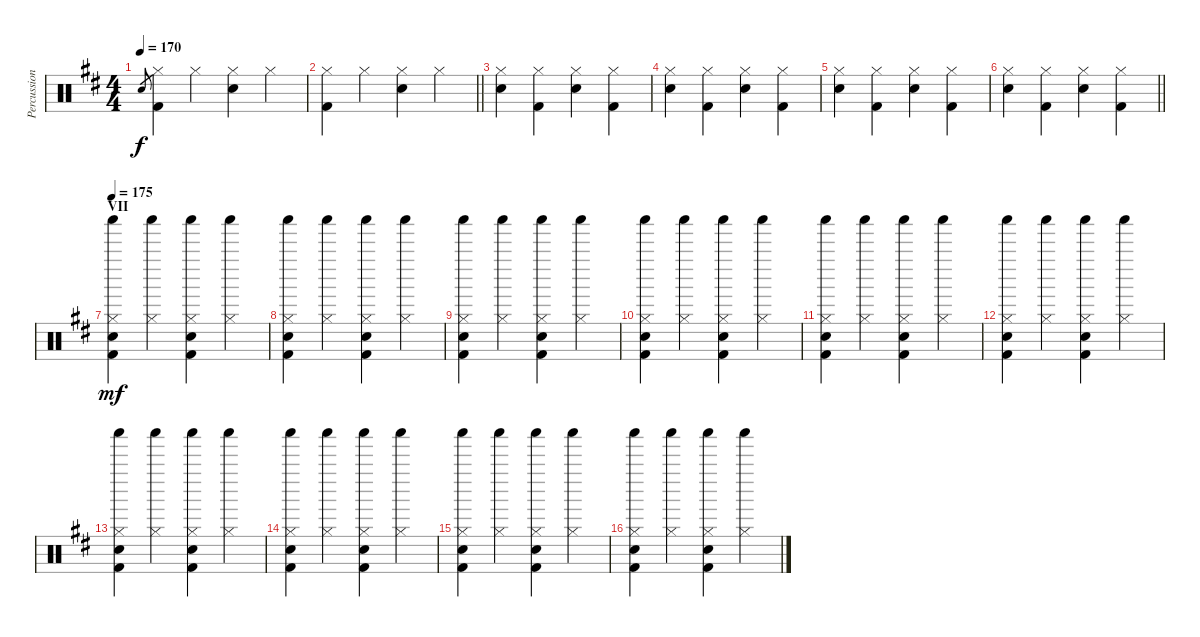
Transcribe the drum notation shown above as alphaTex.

\track ("Percussion [Nick Mason]" "Percussion") {instrument percussion}
\staff {score}
\articulation defaults
\ts (4 4)
\tempo 170
\clef neutral
\ks d "Snare (hit) 2".8{gr dy f}
("Hi-Hat (closed)" "Kick (hit) 2").4 "Hi-Hat (closed)".4 ("Hi-Hat (closed)" "Snare (hit) 2").4 "Hi-Hat (closed)".4 |
\barLineRight lightlight
("Hi-Hat (closed)" "Kick (hit) 2").4 "Hi-Hat (closed)".4 ("Hi-Hat (closed)" "Snare (hit) 2").4 "Hi-Hat (closed)".4 |
("Hi-Hat (closed)" "Snare (hit) 2").4 ("Hi-Hat (closed)" "Kick (hit) 2").4 ("Hi-Hat (closed)" "Snare (hit) 2").4 ("Hi-Hat (closed)" "Kick (hit) 2").4 |
("Hi-Hat (closed)" "Snare (hit) 2").4 ("Hi-Hat (closed)" "Kick (hit) 2").4 ("Hi-Hat (closed)" "Snare (hit) 2").4 ("Hi-Hat (closed)" "Kick (hit) 2").4 |
("Hi-Hat (closed)" "Snare (hit) 2").4 ("Hi-Hat (closed)" "Kick (hit) 2").4 ("Hi-Hat (closed)" "Snare (hit) 2").4 ("Hi-Hat (closed)" "Kick (hit) 2").4 |
\barLineRight lightlight
("Hi-Hat (closed)" "Snare (hit) 2").4 ("Hi-Hat (closed)" "Kick (hit) 2").4 ("Hi-Hat (closed)" "Snare (hit) 2").4 ("Hi-Hat (closed)" "Kick (hit) 2").4 |
\section ("" "VII")
\tempo 175
("Shaker (hit)" "Hi-Hat (closed)" "Snare (hit) 2" "Kick (hit) 2").4{dy mf} ("Shaker (hit)" "Hi-Hat (closed)").4 ("Shaker (hit)" "Hi-Hat (closed)" "Snare (hit) 2" "Kick (hit) 2").4 ("Shaker (hit)" "Hi-Hat (closed)").4 |
("Shaker (hit)" "Hi-Hat (closed)" "Snare (hit) 2" "Kick (hit) 2").4 ("Shaker (hit)" "Hi-Hat (closed)").4 ("Shaker (hit)" "Hi-Hat (closed)" "Snare (hit) 2" "Kick (hit) 2").4 ("Shaker (hit)" "Hi-Hat (closed)").4 |
("Shaker (hit)" "Hi-Hat (closed)" "Snare (hit) 2" "Kick (hit) 2").4 ("Shaker (hit)" "Hi-Hat (closed)").4 ("Shaker (hit)" "Hi-Hat (closed)" "Snare (hit) 2" "Kick (hit) 2").4 ("Shaker (hit)" "Hi-Hat (closed)").4 |
("Shaker (hit)" "Hi-Hat (closed)" "Snare (hit) 2" "Kick (hit) 2").4 ("Shaker (hit)" "Hi-Hat (closed)").4 ("Shaker (hit)" "Hi-Hat (closed)" "Snare (hit) 2" "Kick (hit) 2").4 ("Shaker (hit)" "Hi-Hat (closed)").4 |
("Shaker (hit)" "Hi-Hat (closed)" "Snare (hit) 2" "Kick (hit) 2").4 ("Shaker (hit)" "Hi-Hat (closed)").4 ("Shaker (hit)" "Hi-Hat (closed)" "Snare (hit) 2" "Kick (hit) 2").4 ("Shaker (hit)" "Hi-Hat (closed)").4 |
("Shaker (hit)" "Hi-Hat (closed)" "Snare (hit) 2" "Kick (hit) 2").4 ("Shaker (hit)" "Hi-Hat (closed)").4 ("Shaker (hit)" "Hi-Hat (closed)" "Snare (hit) 2" "Kick (hit) 2").4 ("Shaker (hit)" "Hi-Hat (closed)").4 |
("Shaker (hit)" "Hi-Hat (closed)" "Snare (hit) 2" "Kick (hit) 2").4 ("Shaker (hit)" "Hi-Hat (closed)").4 ("Shaker (hit)" "Hi-Hat (closed)" "Snare (hit) 2" "Kick (hit) 2").4 ("Shaker (hit)" "Hi-Hat (closed)").4 |
("Shaker (hit)" "Hi-Hat (closed)" "Snare (hit) 2" "Kick (hit) 2").4 ("Shaker (hit)" "Hi-Hat (closed)").4 ("Shaker (hit)" "Hi-Hat (closed)" "Snare (hit) 2" "Kick (hit) 2").4 ("Shaker (hit)" "Hi-Hat (closed)").4 |
("Shaker (hit)" "Hi-Hat (closed)" "Snare (hit) 2" "Kick (hit) 2").4 ("Shaker (hit)" "Hi-Hat (closed)").4 ("Shaker (hit)" "Hi-Hat (closed)" "Snare (hit) 2" "Kick (hit) 2").4 ("Shaker (hit)" "Hi-Hat (closed)").4 |
("Shaker (hit)" "Hi-Hat (closed)" "Snare (hit) 2" "Kick (hit) 2").4 ("Shaker (hit)" "Hi-Hat (closed)").4 ("Shaker (hit)" "Hi-Hat (closed)" "Snare (hit) 2" "Kick (hit) 2").4 ("Shaker (hit)" "Hi-Hat (closed)").4
